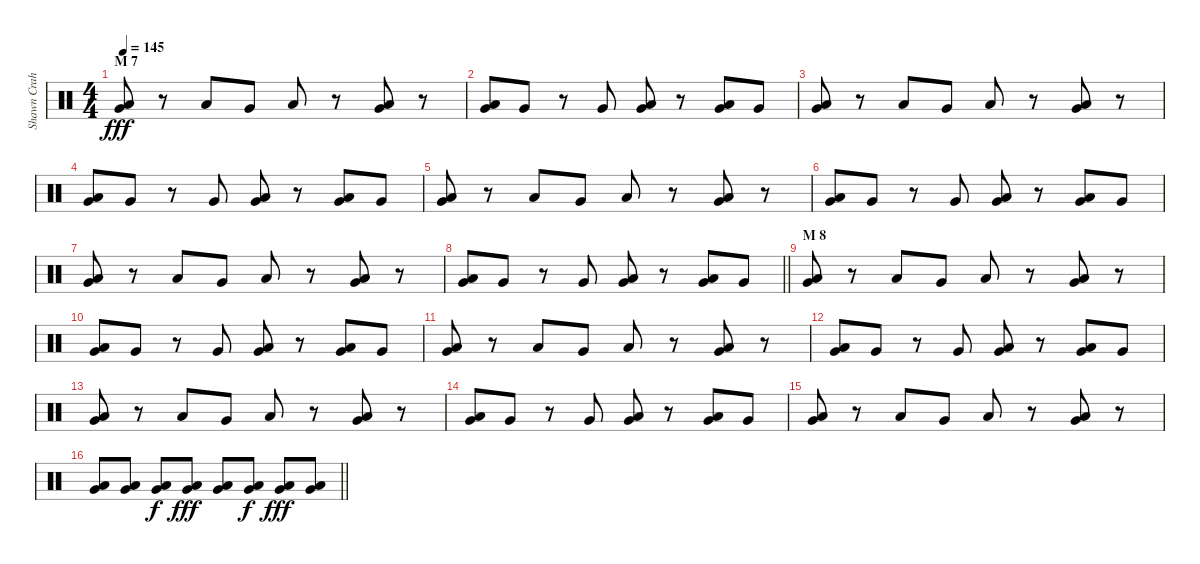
\track ("Shawn Crahan" "Shawn Crah") {instrument percussion}
\staff {score}
\articulation defaults
\ts (4 4)
\section ("" "M 7")
\tempo 145
\clef neutral
\ks c
("Very Low Tom (hit)" "Low Floor Tom (hit)").8{dy fff} r.8 "Low Floor Tom (hit)".8 "Very Low Tom (hit)".8 "Low Floor Tom (hit)".8 r.8 ("Very Low Tom (hit)" "Low Floor Tom (hit)").8 r.8 |
("Very Low Tom (hit)" "Low Floor Tom (hit)").8 "Very Low Tom (hit)".8 r.8 "Very Low Tom (hit)".8 ("Very Low Tom (hit)" "Low Floor Tom (hit)").8 r.8 ("Very Low Tom (hit)" "Low Floor Tom (hit)").8 "Very Low Tom (hit)".8 |
("Very Low Tom (hit)" "Low Floor Tom (hit)").8 r.8 "Low Floor Tom (hit)".8 "Very Low Tom (hit)".8 "Low Floor Tom (hit)".8 r.8 ("Very Low Tom (hit)" "Low Floor Tom (hit)").8 r.8 |
("Very Low Tom (hit)" "Low Floor Tom (hit)").8 "Very Low Tom (hit)".8 r.8 "Very Low Tom (hit)".8 ("Very Low Tom (hit)" "Low Floor Tom (hit)").8 r.8 ("Very Low Tom (hit)" "Low Floor Tom (hit)").8 "Very Low Tom (hit)".8 |
("Very Low Tom (hit)" "Low Floor Tom (hit)").8 r.8 "Low Floor Tom (hit)".8 "Very Low Tom (hit)".8 "Low Floor Tom (hit)".8 r.8 ("Very Low Tom (hit)" "Low Floor Tom (hit)").8 r.8 |
("Very Low Tom (hit)" "Low Floor Tom (hit)").8 "Very Low Tom (hit)".8 r.8 "Very Low Tom (hit)".8 ("Very Low Tom (hit)" "Low Floor Tom (hit)").8 r.8 ("Very Low Tom (hit)" "Low Floor Tom (hit)").8 "Very Low Tom (hit)".8 |
("Very Low Tom (hit)" "Low Floor Tom (hit)").8 r.8 "Low Floor Tom (hit)".8 "Very Low Tom (hit)".8 "Low Floor Tom (hit)".8 r.8 ("Very Low Tom (hit)" "Low Floor Tom (hit)").8 r.8 |
\barLineRight lightlight
("Very Low Tom (hit)" "Low Floor Tom (hit)").8 "Very Low Tom (hit)".8 r.8 "Very Low Tom (hit)".8 ("Very Low Tom (hit)" "Low Floor Tom (hit)").8 r.8 ("Very Low Tom (hit)" "Low Floor Tom (hit)").8 "Very Low Tom (hit)".8 |
\section ("" "M 8")
("Very Low Tom (hit)" "Low Floor Tom (hit)").8 r.8 "Low Floor Tom (hit)".8 "Very Low Tom (hit)".8 "Low Floor Tom (hit)".8 r.8 ("Very Low Tom (hit)" "Low Floor Tom (hit)").8 r.8 |
("Very Low Tom (hit)" "Low Floor Tom (hit)").8 "Very Low Tom (hit)".8 r.8 "Very Low Tom (hit)".8 ("Very Low Tom (hit)" "Low Floor Tom (hit)").8 r.8 ("Very Low Tom (hit)" "Low Floor Tom (hit)").8 "Very Low Tom (hit)".8 |
("Very Low Tom (hit)" "Low Floor Tom (hit)").8 r.8 "Low Floor Tom (hit)".8 "Very Low Tom (hit)".8 "Low Floor Tom (hit)".8 r.8 ("Very Low Tom (hit)" "Low Floor Tom (hit)").8 r.8 |
("Very Low Tom (hit)" "Low Floor Tom (hit)").8 "Very Low Tom (hit)".8 r.8 "Very Low Tom (hit)".8 ("Very Low Tom (hit)" "Low Floor Tom (hit)").8 r.8 ("Very Low Tom (hit)" "Low Floor Tom (hit)").8 "Very Low Tom (hit)".8 |
("Very Low Tom (hit)" "Low Floor Tom (hit)").8 r.8 "Low Floor Tom (hit)".8 "Very Low Tom (hit)".8 "Low Floor Tom (hit)".8 r.8 ("Very Low Tom (hit)" "Low Floor Tom (hit)").8 r.8 |
("Very Low Tom (hit)" "Low Floor Tom (hit)").8 "Very Low Tom (hit)".8 r.8 "Very Low Tom (hit)".8 ("Very Low Tom (hit)" "Low Floor Tom (hit)").8 r.8 ("Very Low Tom (hit)" "Low Floor Tom (hit)").8 "Very Low Tom (hit)".8 |
("Very Low Tom (hit)" "Low Floor Tom (hit)").8 r.8 "Low Floor Tom (hit)".8 "Very Low Tom (hit)".8 "Low Floor Tom (hit)".8 r.8 ("Very Low Tom (hit)" "Low Floor Tom (hit)").8 r.8 |
\barLineRight lightlight
("Very Low Tom (hit)" "Low Floor Tom (hit)").8 ("Very Low Tom (hit)" "Low Floor Tom (hit)").8 ("Very Low Tom (hit)" "Low Floor Tom (hit)").8{dy f} ("Very Low Tom (hit)" "Low Floor Tom (hit)").8{dy fff} ("Very Low Tom (hit)" "Low Floor Tom (hit)").8 ("Very Low Tom (hit)" "Low Floor Tom (hit)").8{dy f} ("Very Low Tom (hit)" "Low Floor Tom (hit)").8{dy fff} ("Very Low Tom (hit)" "Low Floor Tom (hit)").8
